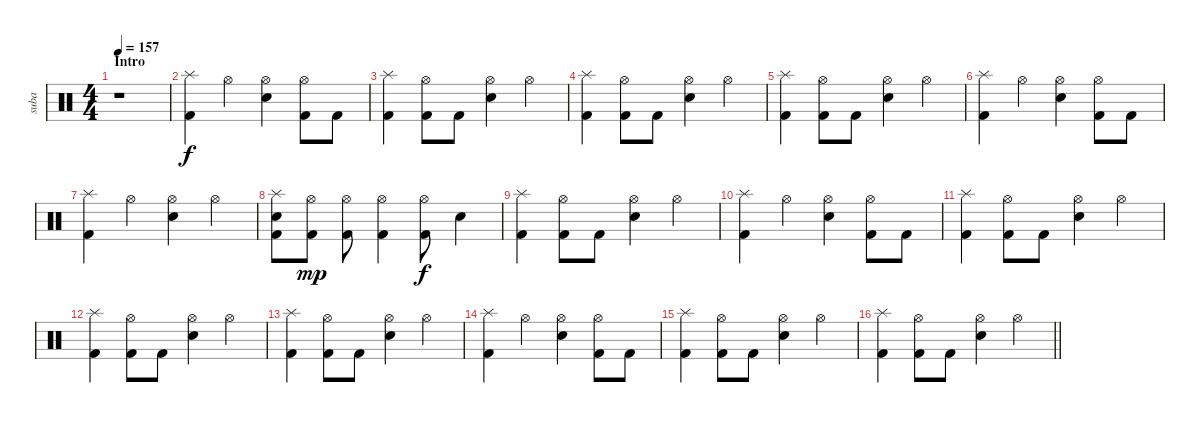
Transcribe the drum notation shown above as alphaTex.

\track ("suba" "suba") {instrument percussion}
\staff {score}
\articulation defaults
\ts (4 4)
\section ("" "Intro ")
\tempo 157
\clef neutral
\ks c
r.1{dy f} |
("Splash (hit)" "Kick (hit) 2").4 "Hi-Hat (open)".4 ("Hi-Hat (open)" "Electric Snare (hit)").4 ("Hi-Hat (open)" "Kick (hit) 2").8 "Kick (hit) 2".8 |
("Splash (hit)" "Kick (hit) 2").4 ("Hi-Hat (open)" "Kick (hit) 2").8 "Kick (hit) 2".8 ("Hi-Hat (open)" "Electric Snare (hit)").4 "Hi-Hat (open)".4 |
("Splash (hit)" "Kick (hit) 2").4 ("Hi-Hat (open)" "Kick (hit) 2").8 "Kick (hit) 2".8 ("Hi-Hat (open)" "Electric Snare (hit)").4 "Hi-Hat (open)".4 |
("Splash (hit)" "Kick (hit) 2").4 ("Hi-Hat (open)" "Kick (hit) 2").8 "Kick (hit) 2".8 ("Hi-Hat (open)" "Electric Snare (hit)").4 "Hi-Hat (open)".4 |
("Splash (hit)" "Kick (hit) 2").4 "Hi-Hat (open)".4 ("Hi-Hat (open)" "Electric Snare (hit)").4 ("Hi-Hat (open)" "Kick (hit) 2").8 "Kick (hit) 2".8 |
("Splash (hit)" "Kick (hit) 2").4 "Hi-Hat (open)".4 ("Hi-Hat (open)" "Electric Snare (hit)").4 "Hi-Hat (open)".4 |
("Splash (hit)" "Electric Snare (hit)" "Kick (hit) 2").8 ("Hi-Hat (open)" "Kick (hit) 2").8{dy mp} ("Hi-Hat (open)" "Kick (hit) 2").8 ("Hi-Hat (open)" "Kick (hit) 2").4 ("Hi-Hat (open)" "Kick (hit) 2").8{dy f} "Electric Snare (hit)".4 |
("Splash (hit)" "Kick (hit) 2").4 ("Hi-Hat (open)" "Kick (hit) 2").8 "Kick (hit) 2".8 ("Hi-Hat (open)" "Electric Snare (hit)").4 "Hi-Hat (open)".4 |
("Splash (hit)" "Kick (hit) 2").4 "Hi-Hat (open)".4 ("Hi-Hat (open)" "Electric Snare (hit)").4 ("Hi-Hat (open)" "Kick (hit) 2").8 "Kick (hit) 2".8 |
("Splash (hit)" "Kick (hit) 2").4 ("Hi-Hat (open)" "Kick (hit) 2").8 "Kick (hit) 2".8 ("Hi-Hat (open)" "Electric Snare (hit)").4 "Hi-Hat (open)".4 |
("Splash (hit)" "Kick (hit) 2").4 ("Hi-Hat (open)" "Kick (hit) 2").8 "Kick (hit) 2".8 ("Hi-Hat (open)" "Electric Snare (hit)").4 "Hi-Hat (open)".4 |
("Splash (hit)" "Kick (hit) 2").4 ("Hi-Hat (open)" "Kick (hit) 2").8 "Kick (hit) 2".8 ("Hi-Hat (open)" "Electric Snare (hit)").4 "Hi-Hat (open)".4 |
("Splash (hit)" "Kick (hit) 2").4 "Hi-Hat (open)".4 ("Hi-Hat (open)" "Electric Snare (hit)").4 ("Hi-Hat (open)" "Kick (hit) 2").8 "Kick (hit) 2".8 |
("Splash (hit)" "Kick (hit) 2").4 ("Hi-Hat (open)" "Kick (hit) 2").8 "Kick (hit) 2".8 ("Hi-Hat (open)" "Electric Snare (hit)").4 "Hi-Hat (open)".4 |
\barLineRight lightlight
("Splash (hit)" "Kick (hit) 2").4 ("Hi-Hat (open)" "Kick (hit) 2").8 "Kick (hit) 2".8 ("Hi-Hat (open)" "Electric Snare (hit)").4 "Hi-Hat (open)".4
